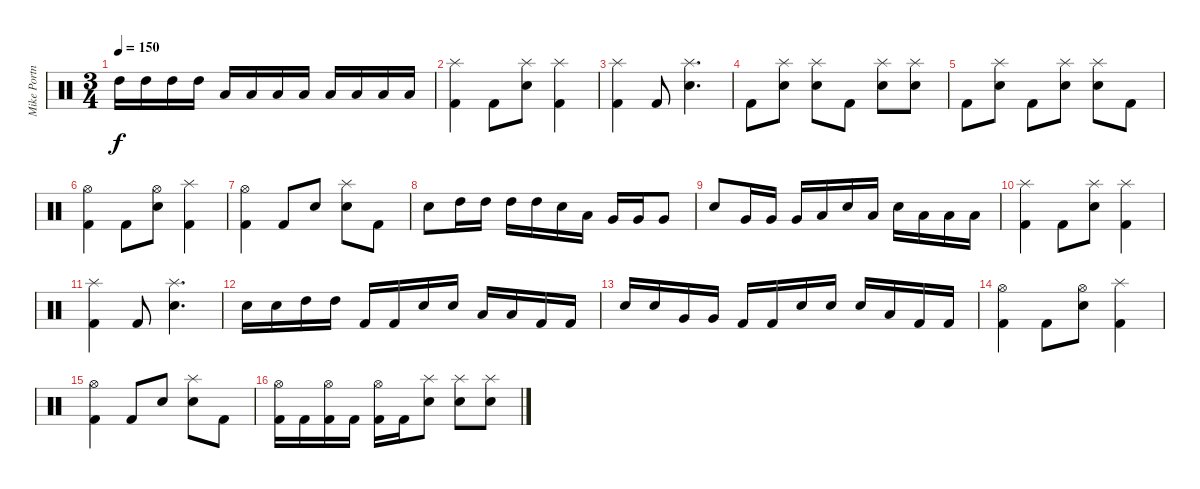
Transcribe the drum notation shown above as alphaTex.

\track ("Mike Portnoy" "Mike Portn") {instrument percussion}
\staff {score}
\articulation defaults
\ts (3 4)
\tempo 150
\clef neutral
\ks c "High Tom (hit)".16{dy f} "High Tom (hit)".16 "High Tom (hit)".16 "High Tom (hit)".16 "Low Tom (hit)".16 "Low Tom (hit)".16 "Low Tom (hit)".16 "Low Tom (hit)".16 "Low Floor Tom (hit)".16 "Low Floor Tom (hit)".16 "Low Floor Tom (hit)".16 "Low Floor Tom (hit)".16
|
("Kick (hit) 2" "Splash (hit)").4 "Kick (hit) 2".8 ("Electric Snare (hit)" "Splash (hit)").8 ("Kick (hit) 2" "Splash (hit)").4 |
("Kick (hit) 2" "Splash (hit)").4 "Kick (hit) 2".8 ("Electric Snare (hit)" "Splash (hit)").4{d} |
"Kick (hit) 2".8 ("Electric Snare (hit)" "Splash (hit)").8 ("Electric Snare (hit)" "Splash (hit)").8 "Kick (hit) 2".8 ("Electric Snare (hit)" "Splash (hit)").8 ("Electric Snare (hit)" "Splash (hit)").8 |
"Kick (hit) 2".8 ("Electric Snare (hit)" "Splash (hit)").8 "Kick (hit) 2".8 ("Electric Snare (hit)" "Splash (hit)").8 ("Electric Snare (hit)" "Splash (hit)").8 "Kick (hit) 2".8 |
("Kick (hit) 2" "Hi-Hat (open)").4 "Kick (hit) 2".8 ("Electric Snare (hit)" "Hi-Hat (open)").8 ("Kick (hit) 2" "Splash (hit)").4 |
("Kick (hit) 2" "Hi-Hat (open)").4 "Kick (hit) 2".8 "Electric Snare (hit)".8 ("Electric Snare (hit)" "Splash (hit)").8 "Kick (hit) 2".8 |
"Electric Snare (hit)".8 "High Tom (hit)".16 "High Tom (hit)".16 "High Tom (hit)".16 "High Tom (hit)".16 "Electric Snare (hit)".16 "Low Tom (hit)".16 "Very Low Tom (hit)".16 "Very Low Tom (hit)".16 "Very Low Tom (hit)".8 |
"Electric Snare (hit)".8 "Very Low Tom (hit)".16 "Very Low Tom (hit)".16 "Very Low Tom (hit)".16 "Low Floor Tom (hit)".16 "Electric Snare (hit)".16 "Low Floor Tom (hit)".16 "Electric Snare (hit)".16 "Low Floor Tom (hit)".16 "Low Floor Tom (hit)".16 "Low Floor Tom (hit)".16 |
("Kick (hit) 2" "Splash (hit)").4 "Kick (hit) 2".8 ("Electric Snare (hit)" "Splash (hit)").8 ("Kick (hit) 2" "Splash (hit)").4 |
("Kick (hit) 2" "Splash (hit)").4 "Kick (hit) 2".8 ("Electric Snare (hit)" "Splash (hit)").4{d} |
"Electric Snare (hit)".16 "Electric Snare (hit)".16 "High Tom (hit)".16 "High Tom (hit)".16 "Kick (hit) 2".16 "Kick (hit) 2".16 "Electric Snare (hit)".16 "Electric Snare (hit)".16 "Low Tom (hit)".16 "Low Tom (hit)".16 "Kick (hit) 2".16 "Kick (hit) 2".16 |
"Electric Snare (hit)".16 "Electric Snare (hit)".16 "Very Low Tom (hit)".16 "Very Low Tom (hit)".16 "Kick (hit) 2".16 "Kick (hit) 2".16 "Electric Snare (hit)".16 "Electric Snare (hit)".16 "Electric Snare (hit)".16 "Low Floor Tom (hit)".16 "Kick (hit) 2".16 "Kick (hit) 2".16 |
("Kick (hit) 2" "Hi-Hat (open)").4 "Kick (hit) 2".8 ("Electric Snare (hit)" "Hi-Hat (open)").8 ("Kick (hit) 2" "Splash (hit)").4 |
("Kick (hit) 2" "Hi-Hat (open)").4 "Kick (hit) 2".8 "Electric Snare (hit)".8 ("Electric Snare (hit)" "Splash (hit)").8 "Kick (hit) 2".8 |
("Kick (hit) 2" "Hi-Hat (open)").16 "Kick (hit) 2".16 ("Kick (hit) 2" "Hi-Hat (open)").16 "Kick (hit) 2".16 ("Kick (hit) 2" "Hi-Hat (open)").16 "Kick (hit) 2".16 ("Splash (hit)" "Electric Snare (hit)").8 ("Splash (hit)" "Electric Snare (hit)").8 ("Splash (hit)" "Electric Snare (hit)").8
